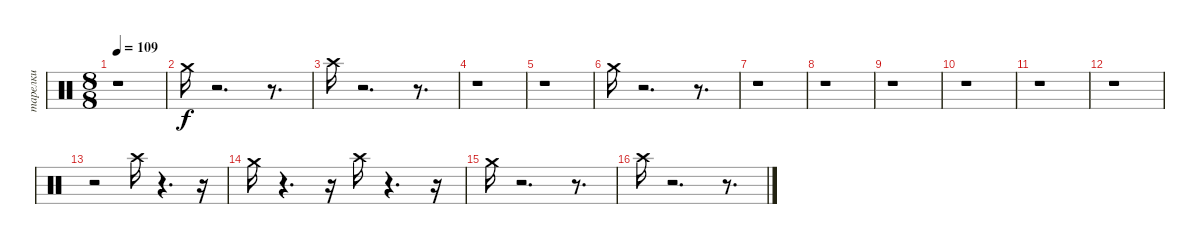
\track ("тарелки" "тарелки") {instrument percussion}
\staff {score}
\articulation defaults
\ts (8 8)
\tempo 109
\clef neutral
\ks c
r.1{dy f} |
"Crash medium (hit)".16 r.2{d} r.8{d} |
"Crash high (hit)".16 r.2{d} r.8{d} |
r.1 |
r.1 |
"Crash medium (hit)".16 r.2{d} r.8{d} |
r.1 |
r.1 |
r.1 |
r.1 |
r.1 |
r.1 |
r.2 "Crash high (hit)".16 r.4{d} r.16 |
"Crash medium (hit)".16 r.4{d} r.16 "Crash high (hit)".16 r.4{d} r.16 |
"Crash medium (hit)".16 r.2{d} r.8{d} |
"Crash high (hit)".16 r.2{d} r.8{d}
